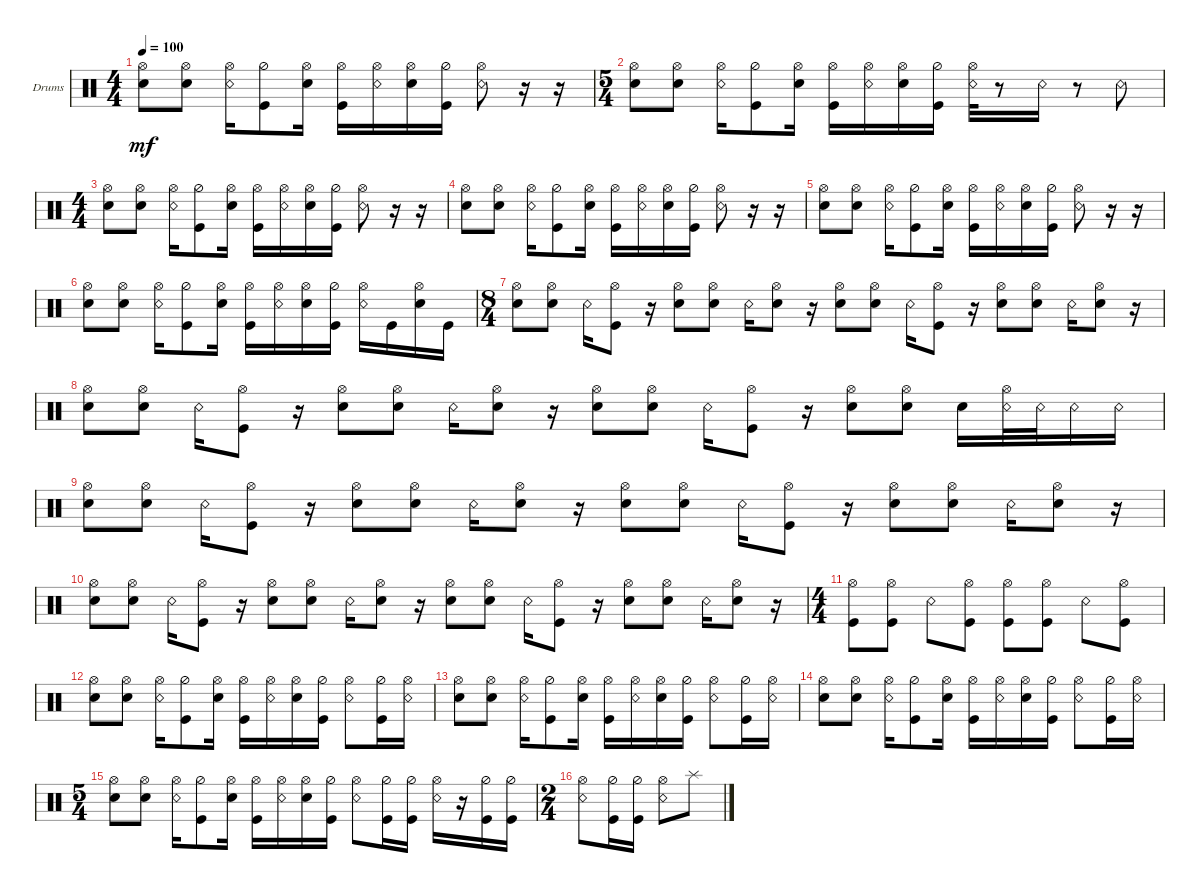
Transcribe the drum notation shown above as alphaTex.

\bracketExtendMode groupsimilarinstruments
\multiBarRest
\firstSystemTrackNameOrientation horizontal
\otherSystemsTrackNameOrientation horizontal
\track ("Rob" "Drums") {instrument percussion}
\staff {score}
\articulation defaults
\ts (4 4)
\tempo 100
\clef neutral
\ks c
("Snare (hit) 2" "Hi-Hat (open)").8{dy mf} ("Snare (hit) 2" "Hi-Hat (open)").8 ("Snare (rim shot)" "Hi-Hat (open)").16 ("Kick (hit)" "Hi-Hat (half)").8 ("Snare (hit) 2" "Hi-Hat (open)").16 ("Kick (hit)" "Hi-Hat (open)").16 ("Snare (rim shot)" "Hi-Hat (open)").16 ("Snare (hit) 2" "Hi-Hat (open)").16 ("Kick (hit)" "Hi-Hat (half)").16 ("Snare (rim shot)" "Hi-Hat (open)").8 r.16 r.16 |
\ts (5 4)
("Snare (hit) 2" "Hi-Hat (open)").8 ("Snare (hit) 2" "Hi-Hat (open)").8 ("Snare (rim shot)" "Hi-Hat (open)").16 ("Kick (hit)" "Hi-Hat (half)").8 ("Snare (hit) 2" "Hi-Hat (open)").16 ("Kick (hit)" "Hi-Hat (open)").16 ("Snare (rim shot)" "Hi-Hat (open)").16 ("Snare (hit) 2" "Hi-Hat (open)").16 ("Kick (hit)" "Hi-Hat (half)").16 ("Snare (rim shot)" "Hi-Hat (open)").32 r.8 "Snare (rim shot)".16 r.8 "Snare (rim shot)".8 |
\ts (4 4)
("Snare (hit) 2" "Hi-Hat (open)").8 ("Snare (hit) 2" "Hi-Hat (open)").8 ("Snare (rim shot)" "Hi-Hat (open)").16 ("Kick (hit)" "Hi-Hat (half)").8 ("Snare (hit) 2" "Hi-Hat (open)").16 ("Kick (hit)" "Hi-Hat (open)").16 ("Snare (rim shot)" "Hi-Hat (open)").16 ("Snare (hit) 2" "Hi-Hat (open)").16 ("Kick (hit)" "Hi-Hat (half)").16 ("Snare (rim shot)" "Hi-Hat (open)").8 r.16 r.16 |
("Snare (hit) 2" "Hi-Hat (open)").8 ("Snare (hit) 2" "Hi-Hat (open)").8 ("Snare (rim shot)" "Hi-Hat (open)").16 ("Kick (hit)" "Hi-Hat (half)").8 ("Snare (hit) 2" "Hi-Hat (open)").16 ("Kick (hit)" "Hi-Hat (open)").16 ("Snare (rim shot)" "Hi-Hat (open)").16 ("Snare (hit) 2" "Hi-Hat (open)").16 ("Kick (hit)" "Hi-Hat (half)").16 ("Snare (rim shot)" "Hi-Hat (open)").8 r.16 r.16 |
("Snare (hit) 2" "Hi-Hat (open)").8 ("Snare (hit) 2" "Hi-Hat (open)").8 ("Snare (rim shot)" "Hi-Hat (open)").16 ("Kick (hit)" "Hi-Hat (half)").8 ("Snare (hit) 2" "Hi-Hat (open)").16 ("Kick (hit)" "Hi-Hat (open)").16 ("Snare (rim shot)" "Hi-Hat (open)").16 ("Snare (hit) 2" "Hi-Hat (open)").16 ("Kick (hit)" "Hi-Hat (half)").16 ("Snare (rim shot)" "Hi-Hat (open)").8 r.16 r.16 |
("Snare (hit) 2" "Hi-Hat (open)").8 ("Snare (hit) 2" "Hi-Hat (open)").8 ("Snare (rim shot)" "Hi-Hat (open)").16 ("Kick (hit)" "Hi-Hat (half)").8 ("Snare (hit) 2" "Hi-Hat (open)").16 ("Kick (hit)" "Hi-Hat (open)").16 ("Snare (rim shot)" "Hi-Hat (open)").16 ("Snare (hit) 2" "Hi-Hat (open)").16 ("Kick (hit)" "Hi-Hat (half)").16 ("Snare (rim shot)" "Hi-Hat (open)").16 "Kick (hit)".16 ("Snare (hit) 2" "Hi-Hat (open)").16 "Kick (hit)".16 |
\ts (8 4)
("Snare (hit) 2" "Hi-Hat (open)").8 ("Snare (hit) 2" "Hi-Hat (open)").8 "Snare (rim shot)".16 ("Kick (hit)" "Hi-Hat (open)").8 r.16 ("Snare (hit) 2" "Hi-Hat (open)").8 ("Snare (hit) 2" "Hi-Hat (open)").8 "Snare (rim shot)".16 ("Snare (hit) 2" "Hi-Hat (open)").8 r.16 ("Snare (hit) 2" "Hi-Hat (open)").8 ("Snare (hit) 2" "Hi-Hat (open)").8 "Snare (rim shot)".16 ("Kick (hit)" "Hi-Hat (open)").8 r.16 ("Snare (hit) 2" "Hi-Hat (open)").8 ("Snare (hit) 2" "Hi-Hat (open)").8 "Snare (rim shot)".16 ("Snare (hit) 2" "Hi-Hat (open)").8 r.16 |
("Snare (hit) 2" "Hi-Hat (open)").8 ("Snare (hit) 2" "Hi-Hat (open)").8 "Snare (rim shot)".16 ("Kick (hit)" "Hi-Hat (open)").8 r.16 ("Snare (hit) 2" "Hi-Hat (open)").8 ("Snare (hit) 2" "Hi-Hat (open)").8 "Snare (rim shot)".16 ("Snare (hit) 2" "Hi-Hat (open)").8 r.16 ("Snare (hit) 2" "Hi-Hat (open)").8 ("Snare (hit) 2" "Hi-Hat (open)").8 "Snare (rim shot)".16 ("Kick (hit)" "Hi-Hat (open)").8 r.16 ("Snare (hit) 2" "Hi-Hat (open)").8 ("Snare (hit) 2" "Hi-Hat (open)").8 "Snare (hit) 2".16 ("Snare (rim shot)" "Hi-Hat (open)").32 "Snare (rim shot)".32 "Snare (rim shot)".16 "Snare (rim shot)".16 |
("Snare (hit) 2" "Hi-Hat (open)").8 ("Snare (hit) 2" "Hi-Hat (open)").8 "Snare (rim shot)".16 ("Kick (hit)" "Hi-Hat (open)").8 r.16 ("Snare (hit) 2" "Hi-Hat (open)").8 ("Snare (hit) 2" "Hi-Hat (open)").8 "Snare (rim shot)".16 ("Snare (hit) 2" "Hi-Hat (open)").8 r.16 ("Snare (hit) 2" "Hi-Hat (open)").8 ("Snare (hit) 2" "Hi-Hat (open)").8 "Snare (rim shot)".16 ("Kick (hit)" "Hi-Hat (open)").8 r.16 ("Snare (hit) 2" "Hi-Hat (open)").8 ("Snare (hit) 2" "Hi-Hat (open)").8 "Snare (rim shot)".16 ("Snare (hit) 2" "Hi-Hat (open)").8 r.16 |
("Snare (hit) 2" "Hi-Hat (open)").8 ("Snare (hit) 2" "Hi-Hat (open)").8 "Snare (rim shot)".16 ("Kick (hit)" "Hi-Hat (open)").8 r.16 ("Snare (hit) 2" "Hi-Hat (open)").8 ("Snare (hit) 2" "Hi-Hat (open)").8 "Snare (rim shot)".16 ("Snare (hit) 2" "Hi-Hat (open)").8 r.16 ("Snare (hit) 2" "Hi-Hat (open)").8 ("Snare (hit) 2" "Hi-Hat (open)").8 "Snare (rim shot)".16 ("Kick (hit)" "Hi-Hat (open)").8 r.16 ("Snare (hit) 2" "Hi-Hat (open)").8 ("Snare (hit) 2" "Hi-Hat (open)").8 "Snare (rim shot)".16 ("Snare (hit) 2" "Hi-Hat (open)").8 r.16 |
\ts (4 4)
("Kick (hit)" "Hi-Hat (open)").8 ("Kick (hit)" "Hi-Hat (open)").8 "Snare (rim shot)".8 ("Kick (hit)" "Hi-Hat (open)").8 ("Kick (hit)" "Hi-Hat (open)").8 ("Kick (hit)" "Hi-Hat (open)").8 "Snare (rim shot)".8 ("Kick (hit)" "Hi-Hat (open)").8 |
("Snare (hit) 2" "Hi-Hat (open)").8 ("Snare (hit) 2" "Hi-Hat (open)").8 ("Snare (rim shot)" "Hi-Hat (open)").16 ("Kick (hit)" "Hi-Hat (half)").8 ("Snare (hit) 2" "Hi-Hat (open)").16 ("Kick (hit)" "Hi-Hat (open)").16 ("Snare (rim shot)" "Hi-Hat (open)").16 ("Snare (hit) 2" "Hi-Hat (open)").16 ("Kick (hit)" "Hi-Hat (half)").16 ("Snare (rim shot)" "Hi-Hat (open)").8 ("Kick (hit)" "Hi-Hat (half)").16 ("Snare (rim shot)" "Hi-Hat (open)").16 |
("Snare (hit) 2" "Hi-Hat (open)").8 ("Snare (hit) 2" "Hi-Hat (open)").8 ("Snare (rim shot)" "Hi-Hat (open)").16 ("Kick (hit)" "Hi-Hat (half)").8 ("Snare (hit) 2" "Hi-Hat (open)").16 ("Kick (hit)" "Hi-Hat (open)").16 ("Snare (rim shot)" "Hi-Hat (open)").16 ("Snare (hit) 2" "Hi-Hat (open)").16 ("Kick (hit)" "Hi-Hat (half)").16 ("Snare (rim shot)" "Hi-Hat (open)").8 ("Kick (hit)" "Hi-Hat (half)").16 ("Snare (rim shot)" "Hi-Hat (open)").16 |
("Snare (hit) 2" "Hi-Hat (open)").8 ("Snare (hit) 2" "Hi-Hat (open)").8 ("Snare (rim shot)" "Hi-Hat (open)").16 ("Kick (hit)" "Hi-Hat (half)").8 ("Snare (hit) 2" "Hi-Hat (open)").16 ("Kick (hit)" "Hi-Hat (open)").16 ("Snare (rim shot)" "Hi-Hat (open)").16 ("Snare (hit) 2" "Hi-Hat (open)").16 ("Kick (hit)" "Hi-Hat (half)").16 ("Snare (rim shot)" "Hi-Hat (open)").8 ("Kick (hit)" "Hi-Hat (half)").16 ("Snare (rim shot)" "Hi-Hat (open)").16 |
\ts (5 4)
("Snare (hit) 2" "Hi-Hat (open)").8 ("Snare (hit) 2" "Hi-Hat (open)").8 ("Snare (rim shot)" "Hi-Hat (open)").16 ("Kick (hit)" "Hi-Hat (half)").8 ("Snare (hit) 2" "Hi-Hat (open)").16 ("Kick (hit)" "Hi-Hat (open)").16 ("Snare (rim shot)" "Hi-Hat (open)").16 ("Snare (hit) 2" "Hi-Hat (open)").16 ("Kick (hit)" "Hi-Hat (half)").16 ("Snare (rim shot)" "Hi-Hat (open)").8 ("Kick (hit)" "Hi-Hat (half)").16 ("Kick (hit)" "Hi-Hat (half)").16 ("Snare (rim shot)" "Hi-Hat (open)").16 r.16 ("Kick (hit)" "Hi-Hat (half)").16 ("Hi-Hat (half)" "Kick (hit)").16 |
\ts (2 4)
("Snare (rim shot)" "Hi-Hat (open)").8 ("Kick (hit)" "Hi-Hat (half)").16 ("Kick (hit)" "Hi-Hat (half)").16 ("Snare (rim shot)" "Hi-Hat (open)").8 "Splash (hit)".8
